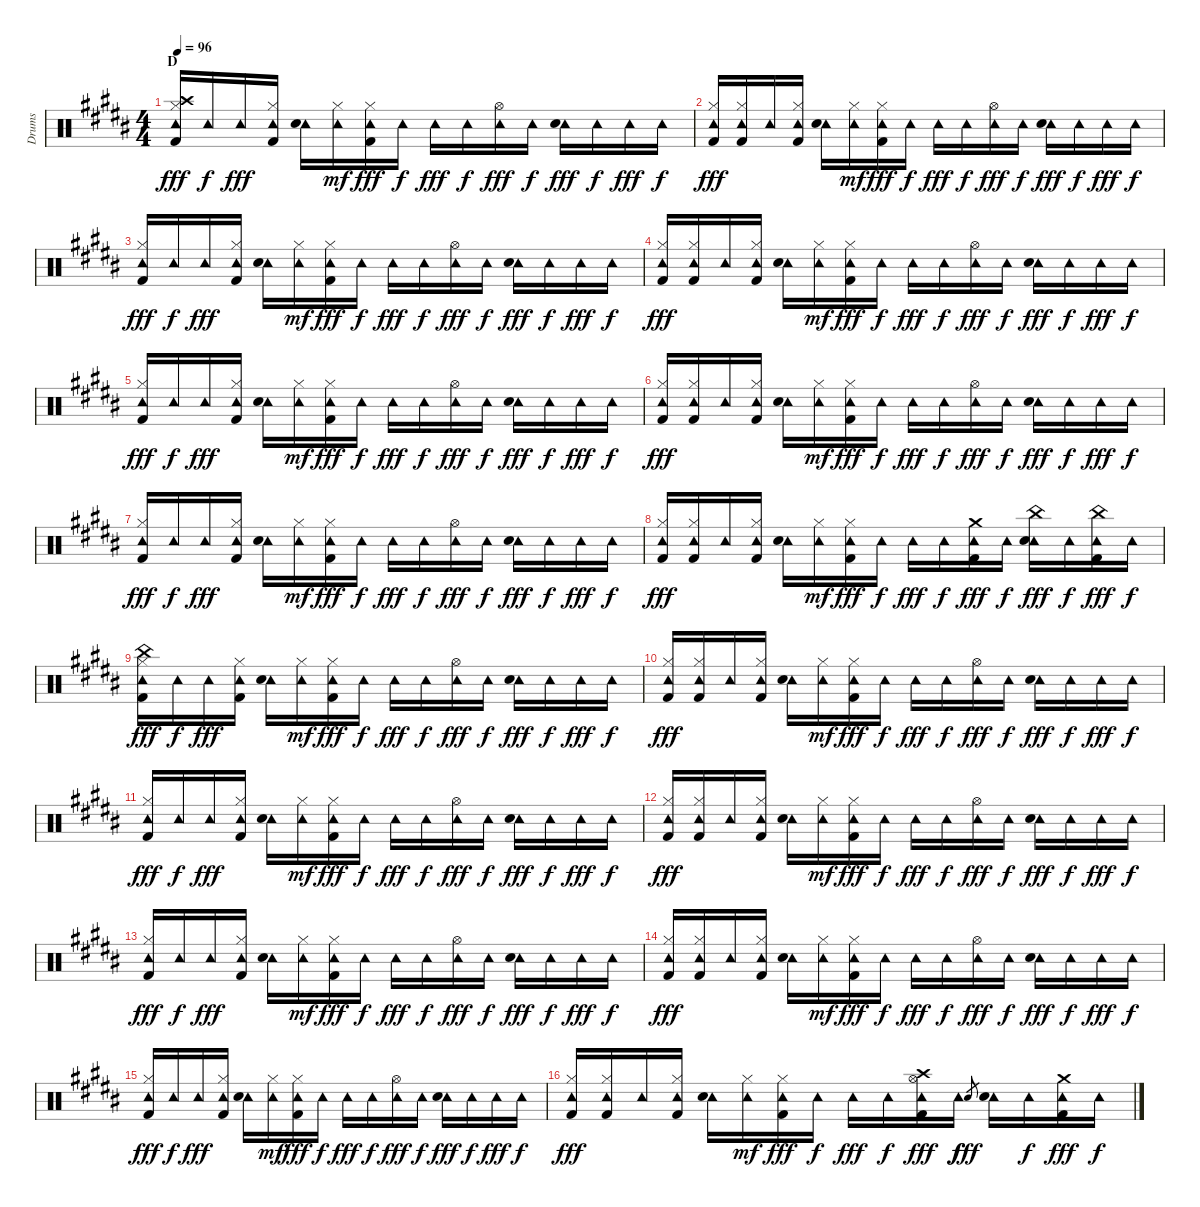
\track ("Drums" "Drums") {instrument percussion}
\staff {score}
\articulation defaults
\ts (4 4)
\section ("" "D")
\tempo 96
\clef neutral
\ks b
("Tambourine (hit)" "Hi-Hat (closed)" "Crash high (hit)" "Kick (hit) 2").16{dy fff} "Tambourine (hit)".16{dy f} "Tambourine (hit)".16{dy fff} ("Tambourine (hit)" "Hi-Hat (closed)" "Kick (hit) 2").16 ("Tambourine (hit)" "Snare (hit) 2").16 ("Tambourine (hit)" "Hi-Hat (closed)").16{dy mf} ("Tambourine (hit)" "Hi-Hat (closed)" "Kick (hit) 2").16{dy fff} "Tambourine (hit)".16{dy f} "Tambourine (hit)".16{dy fff} "Tambourine (hit)".16{dy f} ("Tambourine (hit)" "Hi-Hat (open)").16{dy fff} "Tambourine (hit)".16{dy f} ("Tambourine (hit)" "Snare (hit) 2").16{dy fff} "Tambourine (hit)".16{dy f} "Tambourine (hit)".16{dy fff} "Tambourine (hit)".16{dy f} |
("Tambourine (hit)" "Hi-Hat (closed)" "Kick (hit) 2").16{dy fff} ("Tambourine (hit)" "Hi-Hat (closed)" "Kick (hit) 2").16 "Tambourine (hit)".16 ("Tambourine (hit)" "Hi-Hat (closed)" "Kick (hit) 2").16 ("Tambourine (hit)" "Snare (hit) 2").16 ("Tambourine (hit)" "Hi-Hat (closed)").16{dy mf} ("Tambourine (hit)" "Hi-Hat (closed)" "Kick (hit) 2").16{dy fff} "Tambourine (hit)".16{dy f} "Tambourine (hit)".16{dy fff} "Tambourine (hit)".16{dy f} ("Tambourine (hit)" "Hi-Hat (open)").16{dy fff} "Tambourine (hit)".16{dy f} ("Tambourine (hit)" "Snare (hit) 2").16{dy fff} "Tambourine (hit)".16{dy f} "Tambourine (hit)".16{dy fff} "Tambourine (hit)".16{dy f} |
("Tambourine (hit)" "Hi-Hat (closed)" "Kick (hit) 2").16{dy fff} "Tambourine (hit)".16{dy f} "Tambourine (hit)".16{dy fff} ("Tambourine (hit)" "Hi-Hat (closed)" "Kick (hit) 2").16 ("Tambourine (hit)" "Snare (hit) 2").16 ("Tambourine (hit)" "Hi-Hat (closed)").16{dy mf} ("Tambourine (hit)" "Hi-Hat (closed)" "Kick (hit) 2").16{dy fff} "Tambourine (hit)".16{dy f} "Tambourine (hit)".16{dy fff} "Tambourine (hit)".16{dy f} ("Tambourine (hit)" "Hi-Hat (open)").16{dy fff} "Tambourine (hit)".16{dy f} ("Tambourine (hit)" "Snare (hit) 2").16{dy fff} "Tambourine (hit)".16{dy f} "Tambourine (hit)".16{dy fff} "Tambourine (hit)".16{dy f} |
("Tambourine (hit)" "Hi-Hat (closed)" "Kick (hit) 2").16{dy fff} ("Tambourine (hit)" "Hi-Hat (closed)" "Kick (hit) 2").16 "Tambourine (hit)".16 ("Tambourine (hit)" "Hi-Hat (closed)" "Kick (hit) 2").16 ("Tambourine (hit)" "Snare (hit) 2").16 ("Tambourine (hit)" "Hi-Hat (closed)").16{dy mf} ("Tambourine (hit)" "Hi-Hat (closed)" "Kick (hit) 2").16{dy fff} "Tambourine (hit)".16{dy f} "Tambourine (hit)".16{dy fff} "Tambourine (hit)".16{dy f} ("Tambourine (hit)" "Hi-Hat (open)").16{dy fff} "Tambourine (hit)".16{dy f} ("Tambourine (hit)" "Snare (hit) 2").16{dy fff} "Tambourine (hit)".16{dy f} "Tambourine (hit)".16{dy fff} "Tambourine (hit)".16{dy f} |
("Tambourine (hit)" "Hi-Hat (closed)" "Kick (hit) 2").16{dy fff} "Tambourine (hit)".16{dy f} "Tambourine (hit)".16{dy fff} ("Tambourine (hit)" "Hi-Hat (closed)" "Kick (hit) 2").16 ("Tambourine (hit)" "Snare (hit) 2").16 ("Tambourine (hit)" "Hi-Hat (closed)").16{dy mf} ("Tambourine (hit)" "Hi-Hat (closed)" "Kick (hit) 2").16{dy fff} "Tambourine (hit)".16{dy f} "Tambourine (hit)".16{dy fff} "Tambourine (hit)".16{dy f} ("Tambourine (hit)" "Hi-Hat (open)").16{dy fff} "Tambourine (hit)".16{dy f} ("Tambourine (hit)" "Snare (hit) 2").16{dy fff} "Tambourine (hit)".16{dy f} "Tambourine (hit)".16{dy fff} "Tambourine (hit)".16{dy f} |
("Tambourine (hit)" "Hi-Hat (closed)" "Kick (hit) 2").16{dy fff} ("Tambourine (hit)" "Hi-Hat (closed)" "Kick (hit) 2").16 "Tambourine (hit)".16 ("Tambourine (hit)" "Hi-Hat (closed)" "Kick (hit) 2").16 ("Tambourine (hit)" "Snare (hit) 2").16 ("Tambourine (hit)" "Hi-Hat (closed)").16{dy mf} ("Tambourine (hit)" "Hi-Hat (closed)" "Kick (hit) 2").16{dy fff} "Tambourine (hit)".16{dy f} "Tambourine (hit)".16{dy fff} "Tambourine (hit)".16{dy f} ("Tambourine (hit)" "Hi-Hat (open)").16{dy fff} "Tambourine (hit)".16{dy f} ("Tambourine (hit)" "Snare (hit) 2").16{dy fff} "Tambourine (hit)".16{dy f} "Tambourine (hit)".16{dy fff} "Tambourine (hit)".16{dy f} |
("Tambourine (hit)" "Hi-Hat (closed)" "Kick (hit) 2").16{dy fff} "Tambourine (hit)".16{dy f} "Tambourine (hit)".16{dy fff} ("Tambourine (hit)" "Hi-Hat (closed)" "Kick (hit) 2").16 ("Tambourine (hit)" "Snare (hit) 2").16 ("Tambourine (hit)" "Hi-Hat (closed)").16{dy mf} ("Tambourine (hit)" "Hi-Hat (closed)" "Kick (hit) 2").16{dy fff} "Tambourine (hit)".16{dy f} "Tambourine (hit)".16{dy fff} "Tambourine (hit)".16{dy f} ("Tambourine (hit)" "Hi-Hat (open)").16{dy fff} "Tambourine (hit)".16{dy f} ("Tambourine (hit)" "Snare (hit) 2").16{dy fff} "Tambourine (hit)".16{dy f} "Tambourine (hit)".16{dy fff} "Tambourine (hit)".16{dy f} |
("Tambourine (hit)" "Hi-Hat (closed)" "Kick (hit) 2").16{dy fff} ("Tambourine (hit)" "Hi-Hat (closed)" "Kick (hit) 2").16 "Tambourine (hit)".16 ("Tambourine (hit)" "Hi-Hat (closed)" "Kick (hit) 2").16 ("Tambourine (hit)" "Snare (hit) 2").16 ("Tambourine (hit)" "Hi-Hat (closed)").16{dy mf} ("Tambourine (hit)" "Hi-Hat (closed)" "Kick (hit) 2").16{dy fff} "Tambourine (hit)".16{dy f} "Tambourine (hit)".16{dy fff} "Tambourine (hit)".16{dy f} ("Tambourine (hit)" "Crash medium (hit)" "Kick (hit) 2").16{dy fff} "Tambourine (hit)".16{dy f} ("Tambourine (hit)" "China (hit)" "Snare (hit) 2").16{dy fff} "Tambourine (hit)".16{dy f} ("Tambourine (hit)" "China (hit)" "Kick (hit) 2").16{dy fff} "Tambourine (hit)".16{dy f} |
("Tambourine (hit)" "Hi-Hat (closed)" "China (hit)" "Kick (hit) 2").16{dy fff} "Tambourine (hit)".16{dy f} "Tambourine (hit)".16{dy fff} ("Tambourine (hit)" "Hi-Hat (closed)" "Kick (hit) 2").16 ("Tambourine (hit)" "Snare (hit) 2").16 ("Tambourine (hit)" "Hi-Hat (closed)").16{dy mf} ("Tambourine (hit)" "Hi-Hat (closed)" "Kick (hit) 2").16{dy fff} "Tambourine (hit)".16{dy f} "Tambourine (hit)".16{dy fff} "Tambourine (hit)".16{dy f} ("Tambourine (hit)" "Hi-Hat (open)").16{dy fff} "Tambourine (hit)".16{dy f} ("Tambourine (hit)" "Snare (hit) 2").16{dy fff} "Tambourine (hit)".16{dy f} "Tambourine (hit)".16{dy fff} "Tambourine (hit)".16{dy f} |
("Tambourine (hit)" "Hi-Hat (closed)" "Kick (hit) 2").16{dy fff} ("Tambourine (hit)" "Hi-Hat (closed)" "Kick (hit) 2").16 "Tambourine (hit)".16 ("Tambourine (hit)" "Hi-Hat (closed)" "Kick (hit) 2").16 ("Tambourine (hit)" "Snare (hit) 2").16 ("Tambourine (hit)" "Hi-Hat (closed)").16{dy mf} ("Tambourine (hit)" "Hi-Hat (closed)" "Kick (hit) 2").16{dy fff} "Tambourine (hit)".16{dy f} "Tambourine (hit)".16{dy fff} "Tambourine (hit)".16{dy f} ("Tambourine (hit)" "Hi-Hat (open)").16{dy fff} "Tambourine (hit)".16{dy f} ("Tambourine (hit)" "Snare (hit) 2").16{dy fff} "Tambourine (hit)".16{dy f} "Tambourine (hit)".16{dy fff} "Tambourine (hit)".16{dy f} |
("Tambourine (hit)" "Hi-Hat (closed)" "Kick (hit) 2").16{dy fff} "Tambourine (hit)".16{dy f} "Tambourine (hit)".16{dy fff} ("Tambourine (hit)" "Hi-Hat (closed)" "Kick (hit) 2").16 ("Tambourine (hit)" "Snare (hit) 2").16 ("Tambourine (hit)" "Hi-Hat (closed)").16{dy mf} ("Tambourine (hit)" "Hi-Hat (closed)" "Kick (hit) 2").16{dy fff} "Tambourine (hit)".16{dy f} "Tambourine (hit)".16{dy fff} "Tambourine (hit)".16{dy f} ("Tambourine (hit)" "Hi-Hat (open)").16{dy fff} "Tambourine (hit)".16{dy f} ("Tambourine (hit)" "Snare (hit) 2").16{dy fff} "Tambourine (hit)".16{dy f} "Tambourine (hit)".16{dy fff} "Tambourine (hit)".16{dy f} |
("Tambourine (hit)" "Hi-Hat (closed)" "Kick (hit) 2").16{dy fff} ("Tambourine (hit)" "Hi-Hat (closed)" "Kick (hit) 2").16 "Tambourine (hit)".16 ("Tambourine (hit)" "Hi-Hat (closed)" "Kick (hit) 2").16 ("Tambourine (hit)" "Snare (hit) 2").16 ("Tambourine (hit)" "Hi-Hat (closed)").16{dy mf} ("Tambourine (hit)" "Hi-Hat (closed)" "Kick (hit) 2").16{dy fff} "Tambourine (hit)".16{dy f} "Tambourine (hit)".16{dy fff} "Tambourine (hit)".16{dy f} ("Tambourine (hit)" "Hi-Hat (open)").16{dy fff} "Tambourine (hit)".16{dy f} ("Tambourine (hit)" "Snare (hit) 2").16{dy fff} "Tambourine (hit)".16{dy f} "Tambourine (hit)".16{dy fff} "Tambourine (hit)".16{dy f} |
("Tambourine (hit)" "Hi-Hat (closed)" "Kick (hit) 2").16{dy fff} "Tambourine (hit)".16{dy f} "Tambourine (hit)".16{dy fff} ("Tambourine (hit)" "Hi-Hat (closed)" "Kick (hit) 2").16 ("Tambourine (hit)" "Snare (hit) 2").16 ("Tambourine (hit)" "Hi-Hat (closed)").16{dy mf} ("Tambourine (hit)" "Hi-Hat (closed)" "Kick (hit) 2").16{dy fff} "Tambourine (hit)".16{dy f} "Tambourine (hit)".16{dy fff} "Tambourine (hit)".16{dy f} ("Tambourine (hit)" "Hi-Hat (open)").16{dy fff} "Tambourine (hit)".16{dy f} ("Tambourine (hit)" "Snare (hit) 2").16{dy fff} "Tambourine (hit)".16{dy f} "Tambourine (hit)".16{dy fff} "Tambourine (hit)".16{dy f} |
("Tambourine (hit)" "Hi-Hat (closed)" "Kick (hit) 2").16{dy fff} ("Tambourine (hit)" "Hi-Hat (closed)" "Kick (hit) 2").16 "Tambourine (hit)".16 ("Tambourine (hit)" "Hi-Hat (closed)" "Kick (hit) 2").16 ("Tambourine (hit)" "Snare (hit) 2").16 ("Tambourine (hit)" "Hi-Hat (closed)").16{dy mf} ("Tambourine (hit)" "Hi-Hat (closed)" "Kick (hit) 2").16{dy fff} "Tambourine (hit)".16{dy f} "Tambourine (hit)".16{dy fff} "Tambourine (hit)".16{dy f} ("Tambourine (hit)" "Hi-Hat (open)").16{dy fff} "Tambourine (hit)".16{dy f} ("Tambourine (hit)" "Snare (hit) 2").16{dy fff} "Tambourine (hit)".16{dy f} "Tambourine (hit)".16{dy fff} "Tambourine (hit)".16{dy f} |
("Tambourine (hit)" "Hi-Hat (closed)" "Kick (hit) 2").16{dy fff} "Tambourine (hit)".16{dy f} "Tambourine (hit)".16{dy fff} ("Tambourine (hit)" "Hi-Hat (closed)" "Kick (hit) 2").16 ("Tambourine (hit)" "Snare (hit) 2").16 ("Tambourine (hit)" "Hi-Hat (closed)").16{dy mf} ("Tambourine (hit)" "Hi-Hat (closed)" "Kick (hit) 2").16{dy fff} "Tambourine (hit)".16{dy f} "Tambourine (hit)".16{dy fff} "Tambourine (hit)".16{dy f} ("Tambourine (hit)" "Hi-Hat (open)").16{dy fff} "Tambourine (hit)".16{dy f} ("Tambourine (hit)" "Snare (hit) 2").16{dy fff} "Tambourine (hit)".16{dy f} "Tambourine (hit)".16{dy fff} "Tambourine (hit)".16{dy f} |
("Tambourine (hit)" "Hi-Hat (closed)" "Kick (hit) 2").16{dy fff} ("Tambourine (hit)" "Hi-Hat (closed)" "Kick (hit) 2").16 "Tambourine (hit)".16 ("Tambourine (hit)" "Hi-Hat (closed)" "Kick (hit) 2").16 ("Tambourine (hit)" "Snare (hit) 2").16 ("Tambourine (hit)" "Hi-Hat (closed)").16{dy mf} ("Tambourine (hit)" "Hi-Hat (closed)" "Kick (hit) 2").16{dy fff} "Tambourine (hit)".16{dy f} "Tambourine (hit)".16{dy fff} "Tambourine (hit)".16{dy f} ("Tambourine (hit)" "Hi-Hat (open)" "Crash high (hit)" "Kick (hit) 2").16{dy fff} "Tambourine (hit)".16{dy f} "Snare (hit) 2".8{gr dy fff} ("Tambourine (hit)" "Snare (hit) 2").16 "Tambourine (hit)".16{dy f} ("Tambourine (hit)" "Crash medium (hit)" "Kick (hit) 2").16{dy fff} "Tambourine (hit)".16{dy f}
